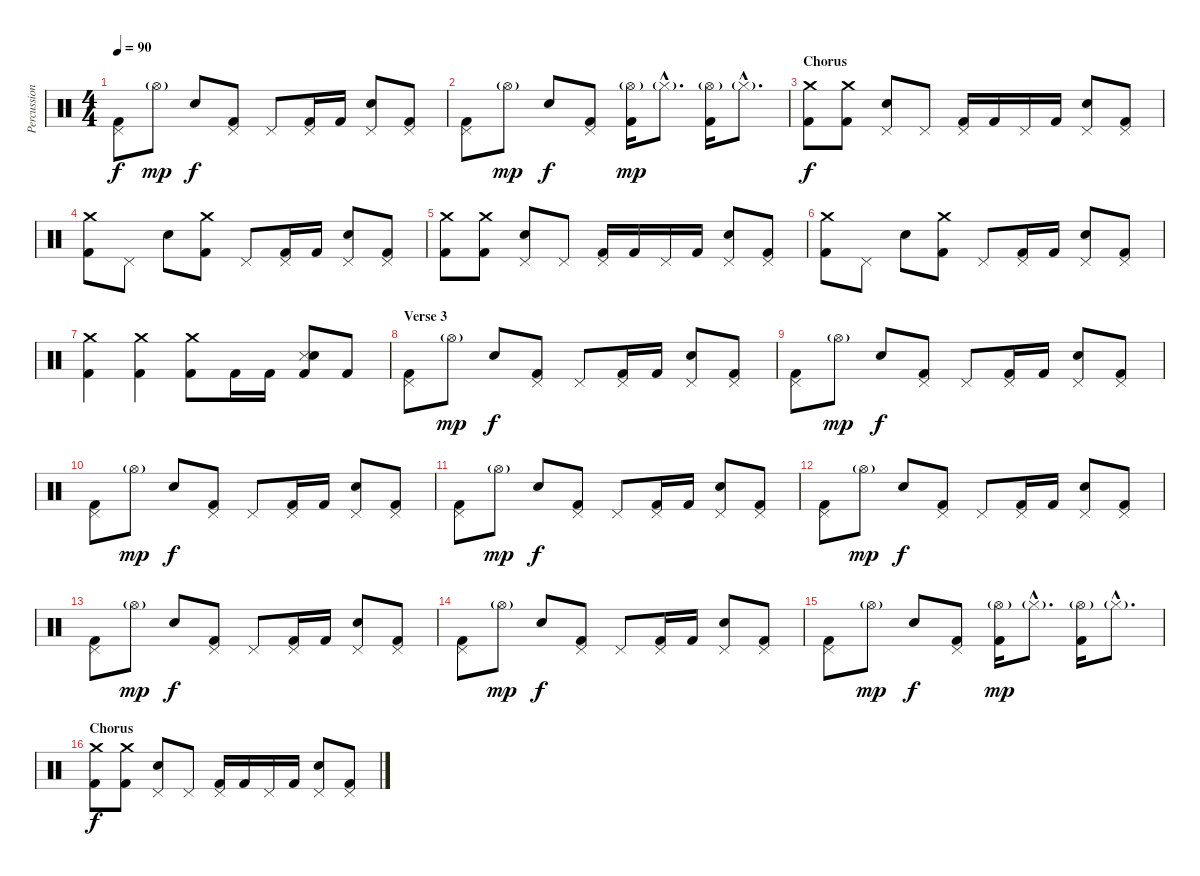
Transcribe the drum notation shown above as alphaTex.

\track ("Percussion" "Percussion") {instrument percussion}
\staff {score}
\articulation defaults
\ts (4 4)
\tempo 90
\clef neutral
\ks c
("Pedal Hi-Hat (hit)" "Kick (hit) 2").8{dy f} "Hi-Hat (open)"{g}.8{dy mp} "Electric Snare (hit)".8{dy f} ("Pedal Hi-Hat (hit)" "Kick (hit) 2").8 "Pedal Hi-Hat (hit)".8 ("Pedal Hi-Hat (hit)" "Kick (hit) 2").16 "Kick (hit) 2".16 ("Pedal Hi-Hat (hit)" "Electric Snare (hit)").8 ("Pedal Hi-Hat (hit)" "Kick (hit) 2").8 |
("Pedal Hi-Hat (hit)" "Kick (hit) 2").8 "Hi-Hat (open)"{g}.8{dy mp} "Electric Snare (hit)".8{dy f} ("Pedal Hi-Hat (hit)" "Kick (hit) 2").8 ("Hi-Hat (open)"{g} "Kick (hit) 2").16{dy mp} "Hi-Hat (closed)"{g hac}.8{d} ("Hi-Hat (open)"{g} "Kick (hit) 2").16 "Hi-Hat (closed)"{g hac}.8{d} |
\section ("" "Chorus")
("Crash medium (hit)" "Kick (hit) 2").8{dy f} ("Crash medium (hit)" "Kick (hit) 2").8 ("Pedal Hi-Hat (hit)" "Electric Snare (hit)").8 "Pedal Hi-Hat (hit)".8 ("Pedal Hi-Hat (hit)" "Kick (hit) 2").16 "Kick (hit) 2".16 "Pedal Hi-Hat (hit)".16 "Kick (hit) 2".16 ("Pedal Hi-Hat (hit)" "Electric Snare (hit)").8 ("Pedal Hi-Hat (hit)" "Kick (hit) 2").8 |
("Crash medium (hit)" "Kick (hit) 2").8 "Pedal Hi-Hat (hit)".8 "Electric Snare (hit)".8 ("Crash medium (hit)" "Kick (hit) 2").8 "Pedal Hi-Hat (hit)".8 ("Pedal Hi-Hat (hit)" "Kick (hit) 2").16 "Kick (hit) 2".16 ("Pedal Hi-Hat (hit)" "Electric Snare (hit)").8 ("Pedal Hi-Hat (hit)" "Kick (hit) 2").8 |
("Crash medium (hit)" "Kick (hit) 2").8 ("Crash medium (hit)" "Kick (hit) 2").8 ("Pedal Hi-Hat (hit)" "Electric Snare (hit)").8 "Pedal Hi-Hat (hit)".8 ("Pedal Hi-Hat (hit)" "Kick (hit) 2").16 "Kick (hit) 2".16 "Pedal Hi-Hat (hit)".16 "Kick (hit) 2".16 ("Pedal Hi-Hat (hit)" "Electric Snare (hit)").8 ("Pedal Hi-Hat (hit)" "Kick (hit) 2").8 |
("Crash medium (hit)" "Kick (hit) 2").8 "Pedal Hi-Hat (hit)".8 "Electric Snare (hit)".8 ("Crash medium (hit)" "Kick (hit) 2").8 "Pedal Hi-Hat (hit)".8 ("Pedal Hi-Hat (hit)" "Kick (hit) 2").16 "Kick (hit) 2".16 ("Pedal Hi-Hat (hit)" "Electric Snare (hit)").8 ("Pedal Hi-Hat (hit)" "Kick (hit) 2").8 |
("Crash medium (hit)" "Kick (hit) 2").4 ("Crash medium (hit)" "Kick (hit) 2").4 ("Crash medium (hit)" "Kick (hit) 2").8 "Kick (hit) 2".16 "Kick (hit) 2".16 ("Snare (side stick) 3" "Electric Snare (hit)" "Kick (hit) 2").8 "Kick (hit) 2".8 |
\section ("" "Verse 3")
("Pedal Hi-Hat (hit)" "Kick (hit) 2").8 "Hi-Hat (open)"{g}.8{dy mp} "Electric Snare (hit)".8{dy f} ("Pedal Hi-Hat (hit)" "Kick (hit) 2").8 "Pedal Hi-Hat (hit)".8 ("Pedal Hi-Hat (hit)" "Kick (hit) 2").16 "Kick (hit) 2".16 ("Pedal Hi-Hat (hit)" "Electric Snare (hit)").8 ("Pedal Hi-Hat (hit)" "Kick (hit) 2").8 |
("Pedal Hi-Hat (hit)" "Kick (hit) 2").8 "Hi-Hat (open)"{g}.8{dy mp} "Electric Snare (hit)".8{dy f} ("Pedal Hi-Hat (hit)" "Kick (hit) 2").8 "Pedal Hi-Hat (hit)".8 ("Pedal Hi-Hat (hit)" "Kick (hit) 2").16 "Kick (hit) 2".16 ("Pedal Hi-Hat (hit)" "Electric Snare (hit)").8 ("Pedal Hi-Hat (hit)" "Kick (hit) 2").8 |
("Pedal Hi-Hat (hit)" "Kick (hit) 2").8 "Hi-Hat (open)"{g}.8{dy mp} "Electric Snare (hit)".8{dy f} ("Pedal Hi-Hat (hit)" "Kick (hit) 2").8 "Pedal Hi-Hat (hit)".8 ("Pedal Hi-Hat (hit)" "Kick (hit) 2").16 "Kick (hit) 2".16 ("Pedal Hi-Hat (hit)" "Electric Snare (hit)").8 ("Pedal Hi-Hat (hit)" "Kick (hit) 2").8 |
("Pedal Hi-Hat (hit)" "Kick (hit) 2").8 "Hi-Hat (open)"{g}.8{dy mp} "Electric Snare (hit)".8{dy f} ("Pedal Hi-Hat (hit)" "Kick (hit) 2").8 "Pedal Hi-Hat (hit)".8 ("Pedal Hi-Hat (hit)" "Kick (hit) 2").16 "Kick (hit) 2".16 ("Pedal Hi-Hat (hit)" "Electric Snare (hit)").8 ("Pedal Hi-Hat (hit)" "Kick (hit) 2").8 |
("Pedal Hi-Hat (hit)" "Kick (hit) 2").8 "Hi-Hat (open)"{g}.8{dy mp} "Electric Snare (hit)".8{dy f} ("Pedal Hi-Hat (hit)" "Kick (hit) 2").8 "Pedal Hi-Hat (hit)".8 ("Pedal Hi-Hat (hit)" "Kick (hit) 2").16 "Kick (hit) 2".16 ("Pedal Hi-Hat (hit)" "Electric Snare (hit)").8 ("Pedal Hi-Hat (hit)" "Kick (hit) 2").8 |
("Pedal Hi-Hat (hit)" "Kick (hit) 2").8 "Hi-Hat (open)"{g}.8{dy mp} "Electric Snare (hit)".8{dy f} ("Pedal Hi-Hat (hit)" "Kick (hit) 2").8 "Pedal Hi-Hat (hit)".8 ("Pedal Hi-Hat (hit)" "Kick (hit) 2").16 "Kick (hit) 2".16 ("Pedal Hi-Hat (hit)" "Electric Snare (hit)").8 ("Pedal Hi-Hat (hit)" "Kick (hit) 2").8 |
("Pedal Hi-Hat (hit)" "Kick (hit) 2").8 "Hi-Hat (open)"{g}.8{dy mp} "Electric Snare (hit)".8{dy f} ("Pedal Hi-Hat (hit)" "Kick (hit) 2").8 "Pedal Hi-Hat (hit)".8 ("Pedal Hi-Hat (hit)" "Kick (hit) 2").16 "Kick (hit) 2".16 ("Pedal Hi-Hat (hit)" "Electric Snare (hit)").8 ("Pedal Hi-Hat (hit)" "Kick (hit) 2").8 |
("Pedal Hi-Hat (hit)" "Kick (hit) 2").8 "Hi-Hat (open)"{g}.8{dy mp} "Electric Snare (hit)".8{dy f} ("Pedal Hi-Hat (hit)" "Kick (hit) 2").8 ("Hi-Hat (open)"{g} "Kick (hit) 2").16{dy mp} "Hi-Hat (closed)"{g hac}.8{d} ("Hi-Hat (open)"{g} "Kick (hit) 2").16 "Hi-Hat (closed)"{g hac}.8{d} |
\section ("" "Chorus")
("Crash medium (hit)" "Kick (hit) 2").8{dy f} ("Crash medium (hit)" "Kick (hit) 2").8 ("Pedal Hi-Hat (hit)" "Electric Snare (hit)").8 "Pedal Hi-Hat (hit)".8 ("Pedal Hi-Hat (hit)" "Kick (hit) 2").16 "Kick (hit) 2".16 "Pedal Hi-Hat (hit)".16 "Kick (hit) 2".16 ("Pedal Hi-Hat (hit)" "Electric Snare (hit)").8 ("Pedal Hi-Hat (hit)" "Kick (hit) 2").8
